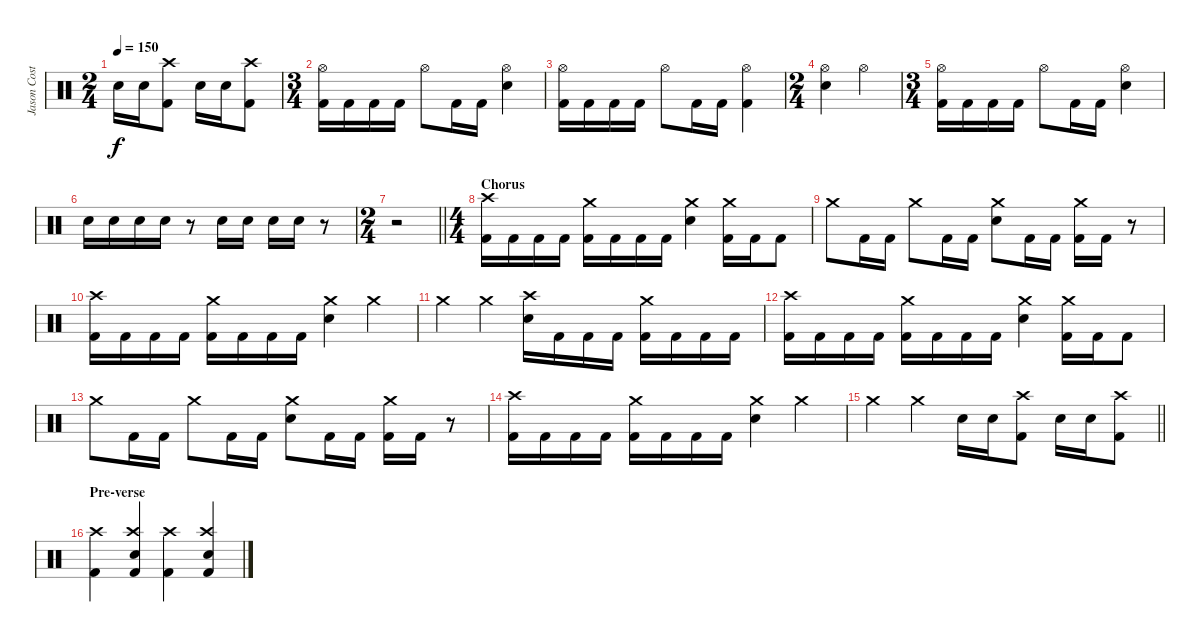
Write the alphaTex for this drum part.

\track ("Jason Costa" "Jason Cost") {instrument percussion}
\staff {score}
\articulation defaults
\ts (2 4)
\tempo 150
\clef neutral
\ks c "Electric Snare (hit)".16{dy f} "Electric Snare (hit)".16
("Crash high (hit)" "Kick (hit) 2").8 "Electric Snare (hit)".16 "Electric Snare (hit)".16 ("Crash high (hit)" "Kick (hit) 2").8 |
\ts (3 4)
("Hi-Hat (open)" "Kick (hit) 2").16 "Kick (hit) 2".16 "Kick (hit) 2".16 "Kick (hit) 2".16 "Hi-Hat (open)".8 "Kick (hit) 2".16 "Kick (hit) 2".16 ("Hi-Hat (open)" "Electric Snare (hit)").4 |
("Hi-Hat (open)" "Kick (hit) 2").16 "Kick (hit) 2".16 "Kick (hit) 2".16 "Kick (hit) 2".16 "Hi-Hat (open)".8 "Kick (hit) 2".16 "Kick (hit) 2".16 ("Hi-Hat (open)" "Kick (hit) 2").4 |
\ts (2 4)
("Hi-Hat (open)" "Electric Snare (hit)").4 "Hi-Hat (open)".4 |
\ts (3 4)
("Hi-Hat (open)" "Kick (hit) 2").16 "Kick (hit) 2".16 "Kick (hit) 2".16 "Kick (hit) 2".16 "Hi-Hat (open)".8 "Kick (hit) 2".16 "Kick (hit) 2".16 ("Hi-Hat (open)" "Electric Snare (hit)").4 |
"Electric Snare (hit)".16 "Electric Snare (hit)".16 "Electric Snare (hit)".16 "Electric Snare (hit)".16 r.8 "Electric Snare (hit)".16 "Electric Snare (hit)".16 "Electric Snare (hit)".16 "Electric Snare (hit)".16 r.8 |
\ts (2 4)
\barLineRight lightlight
r.2 |
\ts (4 4)
\section ("" "Chorus")
("Crash high (hit)" "Kick (hit) 2").16 "Kick (hit) 2".16 "Kick (hit) 2".16 "Kick (hit) 2".16 ("Crash medium (hit)" "Kick (hit) 2").16 "Kick (hit) 2".16 "Kick (hit) 2".16 "Kick (hit) 2".16 ("Crash medium (hit)" "Electric Snare (hit)").4 ("Crash medium (hit)" "Kick (hit) 2").16 "Kick (hit) 2".16 "Kick (hit) 2".8 |
"Crash medium (hit)".8 "Kick (hit) 2".16 "Kick (hit) 2".16 "Crash medium (hit)".8 "Kick (hit) 2".16 "Kick (hit) 2".16 ("Crash medium (hit)" "Electric Snare (hit)").8 "Kick (hit) 2".16 "Kick (hit) 2".16 ("Crash medium (hit)" "Kick (hit) 2").16 "Kick (hit) 2".16 r.8 |
("Crash high (hit)" "Kick (hit) 2").16 "Kick (hit) 2".16 "Kick (hit) 2".16 "Kick (hit) 2".16 ("Crash medium (hit)" "Kick (hit) 2").16 "Kick (hit) 2".16 "Kick (hit) 2".16 "Kick (hit) 2".16 ("Crash medium (hit)" "Electric Snare (hit)").4 "Crash medium (hit)".4 |
"Crash medium (hit)".4 "Crash medium (hit)".4 ("Crash high (hit)" "Electric Snare (hit)").16 "Kick (hit) 2".16 "Kick (hit) 2".16 "Kick (hit) 2".16 ("Crash medium (hit)" "Kick (hit) 2").16 "Kick (hit) 2".16 "Kick (hit) 2".16 "Kick (hit) 2".16 |
("Crash high (hit)" "Kick (hit) 2").16 "Kick (hit) 2".16 "Kick (hit) 2".16 "Kick (hit) 2".16 ("Crash medium (hit)" "Kick (hit) 2").16 "Kick (hit) 2".16 "Kick (hit) 2".16 "Kick (hit) 2".16 ("Crash medium (hit)" "Electric Snare (hit)").4 ("Crash medium (hit)" "Kick (hit) 2").16 "Kick (hit) 2".16 "Kick (hit) 2".8 |
"Crash medium (hit)".8 "Kick (hit) 2".16 "Kick (hit) 2".16 "Crash medium (hit)".8 "Kick (hit) 2".16 "Kick (hit) 2".16 ("Crash medium (hit)" "Electric Snare (hit)").8 "Kick (hit) 2".16 "Kick (hit) 2".16 ("Crash medium (hit)" "Kick (hit) 2").16 "Kick (hit) 2".16 r.8 |
("Crash high (hit)" "Kick (hit) 2").16 "Kick (hit) 2".16 "Kick (hit) 2".16 "Kick (hit) 2".16 ("Crash medium (hit)" "Kick (hit) 2").16 "Kick (hit) 2".16 "Kick (hit) 2".16 "Kick (hit) 2".16 ("Crash medium (hit)" "Electric Snare (hit)").4 "Crash medium (hit)".4 |
\barLineRight lightlight "Crash medium (hit)".4 "Crash medium (hit)".4 "Electric Snare (hit)".16 "Electric Snare (hit)".16
("Crash high (hit)" "Kick (hit) 2").8 "Electric Snare (hit)".16 "Electric Snare (hit)".16 ("Crash high (hit)" "Kick (hit) 2").8 |
\section ("" "Pre-verse")
("Crash high (hit)" "Kick (hit) 2").4 ("Crash high (hit)" "Electric Snare (hit)" "Kick (hit) 2").4 ("Crash high (hit)" "Kick (hit) 2").4 ("Crash high (hit)" "Electric Snare (hit)" "Kick (hit) 2").4
